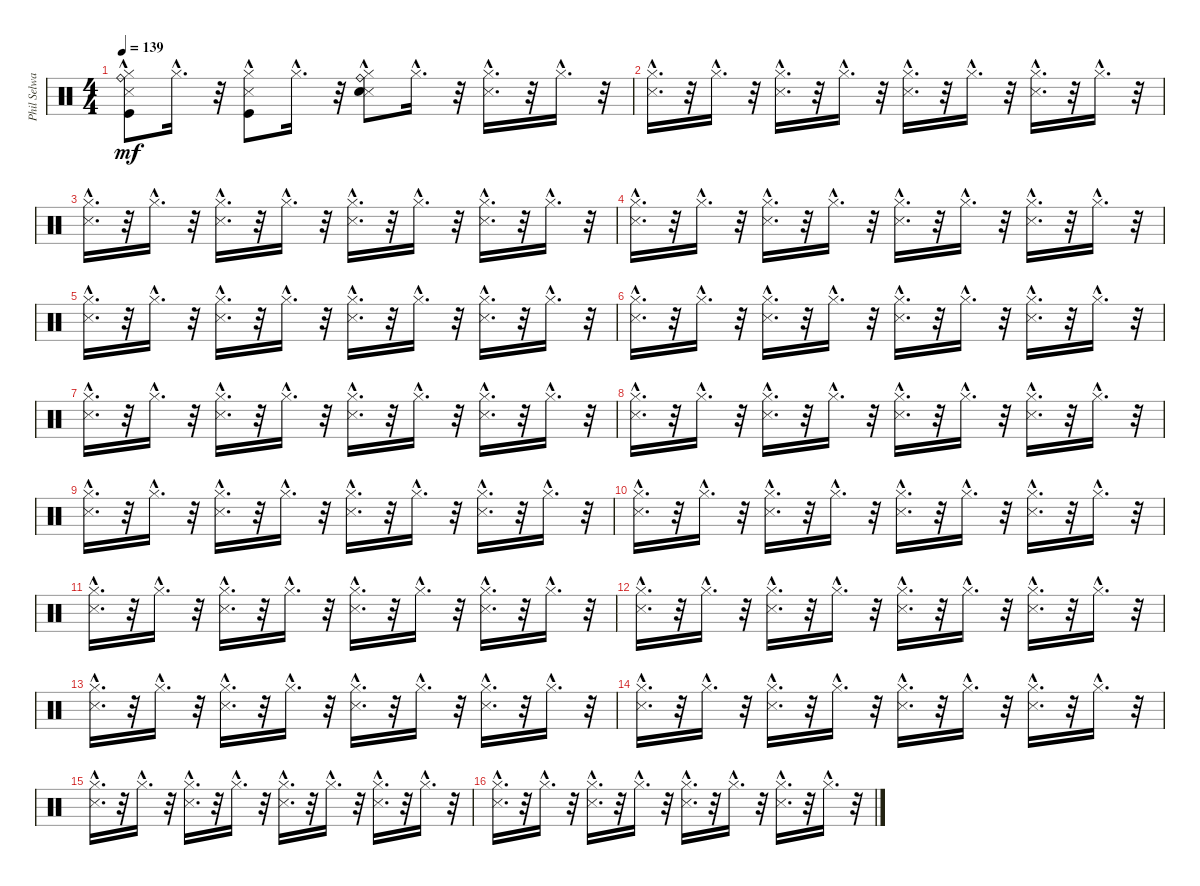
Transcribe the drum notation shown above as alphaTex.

\track ("Phil Selway - Drums" "Phil Selwa") {instrument percussion}
\staff {score}
\articulation defaults
\ts (4 4)
\tempo 139
\clef neutral
\ks c
("Hi-Hat (closed)"{hac} "Snare (side stick) 3"{hac} "Kick (hit)"{hac} "Ride (bell)"{hac}).8{dy mf} "Hi-Hat (closed)"{hac}.16{d} r.32 ("Hi-Hat (closed)"{hac} "Snare (side stick) 3"{hac} "Kick (hit)"{hac}).8 "Hi-Hat (closed)"{hac}.16{d} r.32 ("Hi-Hat (closed)"{hac} "Snare (side stick) 3"{hac} "Snare (hit) 2"{hac} "Ride (bell)"{hac}).8 "Hi-Hat (closed)"{hac}.16{d} r.32 ("Hi-Hat (closed)"{hac} "Snare (side stick) 3"{hac}).16{d} r.32 "Hi-Hat (closed)"{hac}.16{d} r.32 |
("Hi-Hat (closed)"{hac} "Snare (side stick) 3"{hac}).16{d} r.32 "Hi-Hat (closed)"{hac}.16{d} r.32 ("Hi-Hat (closed)"{hac} "Snare (side stick) 3"{hac}).16{d} r.32 "Hi-Hat (closed)"{hac}.16{d} r.32 ("Hi-Hat (closed)"{hac} "Snare (side stick) 3"{hac}).16{d} r.32 "Hi-Hat (closed)"{hac}.16{d} r.32 ("Hi-Hat (closed)"{hac} "Snare (side stick) 3"{hac}).16{d} r.32 "Hi-Hat (closed)"{hac}.16{d} r.32 |
("Snare (side stick) 3"{hac} "Hi-Hat (closed)"{hac}).16{d} r.32 "Hi-Hat (closed)"{hac}.16{d} r.32 ("Snare (side stick) 3"{hac} "Hi-Hat (closed)"{hac}).16{d} r.32 "Hi-Hat (closed)"{hac}.16{d} r.32 ("Snare (side stick) 3"{hac} "Hi-Hat (closed)"{hac}).16{d} r.32 "Hi-Hat (closed)"{hac}.16{d} r.32 ("Snare (side stick) 3"{hac} "Hi-Hat (closed)"{hac}).16{d} r.32 "Hi-Hat (closed)"{hac}.16{d} r.32 |
("Snare (side stick) 3"{hac} "Hi-Hat (closed)"{hac}).16{d} r.32 "Hi-Hat (closed)"{hac}.16{d} r.32 ("Snare (side stick) 3"{hac} "Hi-Hat (closed)"{hac}).16{d} r.32 "Hi-Hat (closed)"{hac}.16{d} r.32 ("Snare (side stick) 3"{hac} "Hi-Hat (closed)"{hac}).16{d} r.32 "Hi-Hat (closed)"{hac}.16{d} r.32 ("Snare (side stick) 3"{hac} "Hi-Hat (closed)"{hac}).16{d} r.32 "Hi-Hat (closed)"{hac}.16{d} r.32 |
("Snare (side stick) 3"{hac} "Hi-Hat (closed)"{hac}).16{d} r.32 "Hi-Hat (closed)"{hac}.16{d} r.32 ("Snare (side stick) 3"{hac} "Hi-Hat (closed)"{hac}).16{d} r.32 "Hi-Hat (closed)"{hac}.16{d} r.32 ("Snare (side stick) 3"{hac} "Hi-Hat (closed)"{hac}).16{d} r.32 "Hi-Hat (closed)"{hac}.16{d} r.32 ("Snare (side stick) 3"{hac} "Hi-Hat (closed)"{hac}).16{d} r.32 "Hi-Hat (closed)"{hac}.16{d} r.32 |
("Snare (side stick) 3"{hac} "Hi-Hat (closed)"{hac}).16{d} r.32 "Hi-Hat (closed)"{hac}.16{d} r.32 ("Snare (side stick) 3"{hac} "Hi-Hat (closed)"{hac}).16{d} r.32 "Hi-Hat (closed)"{hac}.16{d} r.32 ("Snare (side stick) 3"{hac} "Hi-Hat (closed)"{hac}).16{d} r.32 "Hi-Hat (closed)"{hac}.16{d} r.32 ("Snare (side stick) 3"{hac} "Hi-Hat (closed)"{hac}).16{d} r.32 "Hi-Hat (closed)"{hac}.16{d} r.32 |
("Hi-Hat (closed)"{hac} "Snare (side stick) 3"{hac}).16{d} r.32 "Hi-Hat (closed)"{hac}.16{d} r.32 ("Hi-Hat (closed)"{hac} "Snare (side stick) 3"{hac}).16{d} r.32 "Hi-Hat (closed)"{hac}.16{d} r.32 ("Hi-Hat (closed)"{hac} "Snare (side stick) 3"{hac}).16{d} r.32 "Hi-Hat (closed)"{hac}.16{d} r.32 ("Hi-Hat (closed)"{hac} "Snare (side stick) 3"{hac}).16{d} r.32 "Hi-Hat (closed)"{hac}.16{d} r.32 |
("Hi-Hat (closed)"{hac} "Snare (side stick) 3"{hac}).16{d} r.32 "Hi-Hat (closed)"{hac}.16{d} r.32 ("Hi-Hat (closed)"{hac} "Snare (side stick) 3"{hac}).16{d} r.32 "Hi-Hat (closed)"{hac}.16{d} r.32 ("Hi-Hat (closed)"{hac} "Snare (side stick) 3"{hac}).16{d} r.32 "Hi-Hat (closed)"{hac}.16{d} r.32 ("Hi-Hat (closed)"{hac} "Snare (side stick) 3"{hac}).16{d} r.32 "Hi-Hat (closed)"{hac}.16{d} r.32 |
("Hi-Hat (closed)"{hac} "Snare (side stick) 3"{hac}).16{d} r.32 "Hi-Hat (closed)"{hac}.16{d} r.32 ("Hi-Hat (closed)"{hac} "Snare (side stick) 3"{hac}).16{d} r.32 "Hi-Hat (closed)"{hac}.16{d} r.32 ("Hi-Hat (closed)"{hac} "Snare (side stick) 3"{hac}).16{d} r.32 "Hi-Hat (closed)"{hac}.16{d} r.32 ("Hi-Hat (closed)"{hac} "Snare (side stick) 3"{hac}).16{d} r.32 "Hi-Hat (closed)"{hac}.16{d} r.32 |
("Hi-Hat (closed)"{hac} "Snare (side stick) 3"{hac}).16{d} r.32 "Hi-Hat (closed)"{hac}.16{d} r.32 ("Hi-Hat (closed)"{hac} "Snare (side stick) 3"{hac}).16{d} r.32 "Hi-Hat (closed)"{hac}.16{d} r.32 ("Hi-Hat (closed)"{hac} "Snare (side stick) 3"{hac}).16{d} r.32 "Hi-Hat (closed)"{hac}.16{d} r.32 ("Hi-Hat (closed)"{hac} "Snare (side stick) 3"{hac}).16{d} r.32 "Hi-Hat (closed)"{hac}.16{d} r.32 |
("Snare (side stick) 3"{hac} "Hi-Hat (closed)"{hac}).16{d} r.32 "Hi-Hat (closed)"{hac}.16{d} r.32 ("Snare (side stick) 3"{hac} "Hi-Hat (closed)"{hac}).16{d} r.32 "Hi-Hat (closed)"{hac}.16{d} r.32 ("Snare (side stick) 3"{hac} "Hi-Hat (closed)"{hac}).16{d} r.32 "Hi-Hat (closed)"{hac}.16{d} r.32 ("Snare (side stick) 3"{hac} "Hi-Hat (closed)"{hac}).16{d} r.32 "Hi-Hat (closed)"{hac}.16{d} r.32 |
("Snare (side stick) 3"{hac} "Hi-Hat (closed)"{hac}).16{d} r.32 "Hi-Hat (closed)"{hac}.16{d} r.32 ("Snare (side stick) 3"{hac} "Hi-Hat (closed)"{hac}).16{d} r.32 "Hi-Hat (closed)"{hac}.16{d} r.32 ("Snare (side stick) 3"{hac} "Hi-Hat (closed)"{hac}).16{d} r.32 "Hi-Hat (closed)"{hac}.16{d} r.32 ("Snare (side stick) 3"{hac} "Hi-Hat (closed)"{hac}).16{d} r.32 "Hi-Hat (closed)"{hac}.16{d} r.32 |
("Snare (side stick) 3"{hac} "Hi-Hat (closed)"{hac}).16{d} r.32 "Hi-Hat (closed)"{hac}.16{d} r.32 ("Snare (side stick) 3"{hac} "Hi-Hat (closed)"{hac}).16{d} r.32 "Hi-Hat (closed)"{hac}.16{d} r.32 ("Snare (side stick) 3"{hac} "Hi-Hat (closed)"{hac}).16{d} r.32 "Hi-Hat (closed)"{hac}.16{d} r.32 ("Snare (side stick) 3"{hac} "Hi-Hat (closed)"{hac}).16{d} r.32 "Hi-Hat (closed)"{hac}.16{d} r.32 |
("Snare (side stick) 3"{hac} "Hi-Hat (closed)"{hac}).16{d} r.32 "Hi-Hat (closed)"{hac}.16{d} r.32 ("Snare (side stick) 3"{hac} "Hi-Hat (closed)"{hac}).16{d} r.32 "Hi-Hat (closed)"{hac}.16{d} r.32 ("Snare (side stick) 3"{hac} "Hi-Hat (closed)"{hac}).16{d} r.32 "Hi-Hat (closed)"{hac}.16{d} r.32 ("Snare (side stick) 3"{hac} "Hi-Hat (closed)"{hac}).16{d} r.32 "Hi-Hat (closed)"{hac}.16{d} r.32 |
("Hi-Hat (closed)"{hac} "Snare (side stick) 3"{hac}).16{d} r.32 "Hi-Hat (closed)"{hac}.16{d} r.32 ("Hi-Hat (closed)"{hac} "Snare (side stick) 3"{hac}).16{d} r.32 "Hi-Hat (closed)"{hac}.16{d} r.32 ("Hi-Hat (closed)"{hac} "Snare (side stick) 3"{hac}).16{d} r.32 "Hi-Hat (closed)"{hac}.16{d} r.32 ("Hi-Hat (closed)"{hac} "Snare (side stick) 3"{hac}).16{d} r.32 "Hi-Hat (closed)"{hac}.16{d} r.32 |
("Hi-Hat (closed)"{hac} "Snare (side stick) 3"{hac}).16{d} r.32 "Hi-Hat (closed)"{hac}.16{d} r.32 ("Hi-Hat (closed)"{hac} "Snare (side stick) 3"{hac}).16{d} r.32 "Hi-Hat (closed)"{hac}.16{d} r.32 ("Hi-Hat (closed)"{hac} "Snare (side stick) 3"{hac}).16{d} r.32 "Hi-Hat (closed)"{hac}.16{d} r.32 ("Hi-Hat (closed)"{hac} "Snare (side stick) 3"{hac}).16{d} r.32 "Hi-Hat (closed)"{hac}.16{d} r.32
